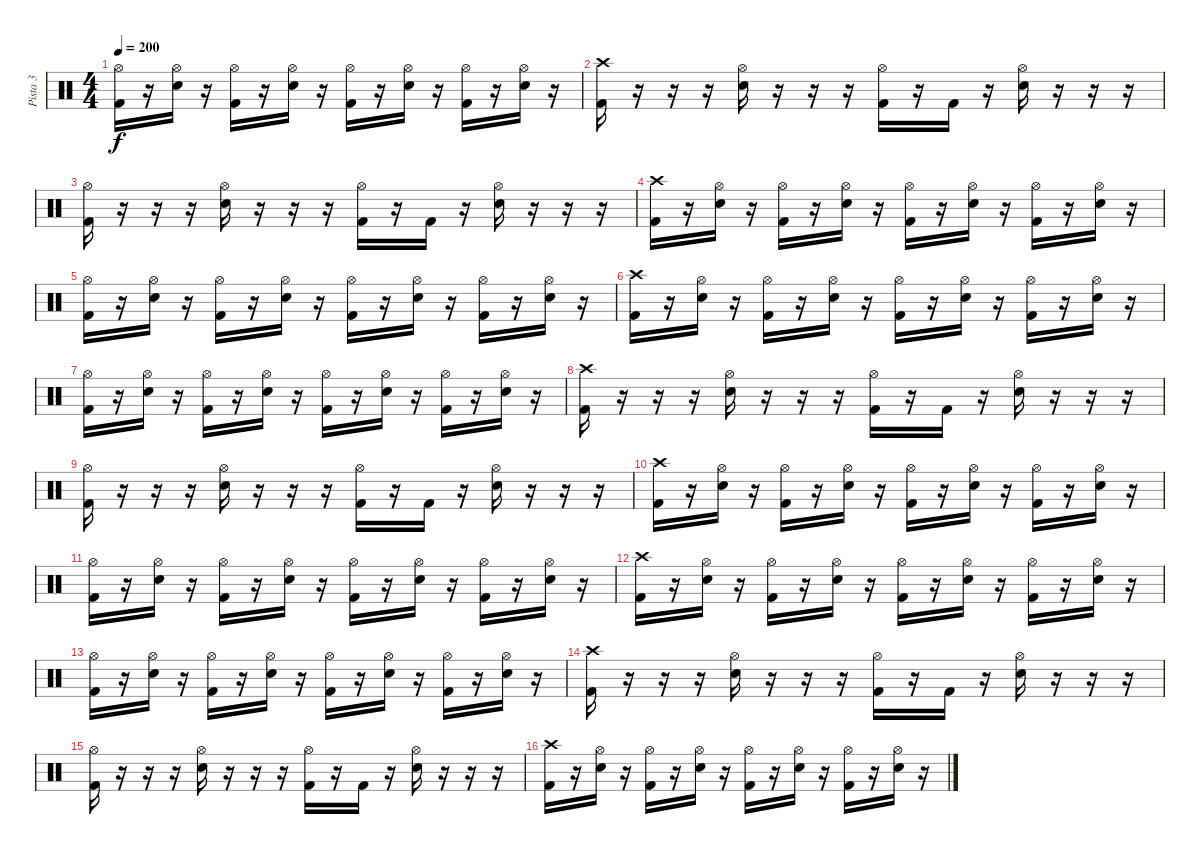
\track ("Pista 3" "Pista 3") {instrument percussion}
\staff {score}
\articulation defaults
\ts (4 4)
\tempo 200
\clef neutral
\ks c
("Hi-Hat (open)" "Kick (hit) 2").16{dy f} r.16 ("Hi-Hat (open)" "Electric Snare (hit)").16 r.16 ("Hi-Hat (open)" "Kick (hit) 2").16 r.16 ("Hi-Hat (open)" "Electric Snare (hit)").16 r.16 ("Hi-Hat (open)" "Kick (hit) 2").16 r.16 ("Hi-Hat (open)" "Electric Snare (hit)").16 r.16 ("Hi-Hat (open)" "Kick (hit) 2").16 r.16 ("Hi-Hat (open)" "Electric Snare (hit)").16 r.16 |
("Crash high (hit)" "Kick (hit) 2").16 r.16 r.16 r.16 ("Hi-Hat (open)" "Electric Snare (hit)").16 r.16 r.16 r.16 ("Hi-Hat (open)" "Kick (hit) 2").16 r.16 "Kick (hit) 2".16 r.16 ("Hi-Hat (open)" "Electric Snare (hit)").16 r.16 r.16 r.16 |
("Hi-Hat (open)" "Kick (hit) 2").16 r.16 r.16 r.16 ("Hi-Hat (open)" "Electric Snare (hit)").16 r.16 r.16 r.16 ("Hi-Hat (open)" "Kick (hit) 2").16 r.16 "Kick (hit) 2".16 r.16 ("Hi-Hat (open)" "Electric Snare (hit)").16 r.16 r.16 r.16 |
("Crash high (hit)" "Kick (hit) 2").16 r.16 ("Hi-Hat (open)" "Electric Snare (hit)").16 r.16 ("Hi-Hat (open)" "Kick (hit) 2").16 r.16 ("Hi-Hat (open)" "Electric Snare (hit)").16 r.16 ("Hi-Hat (open)" "Kick (hit) 2").16 r.16 ("Hi-Hat (open)" "Electric Snare (hit)").16 r.16 ("Hi-Hat (open)" "Kick (hit) 2").16 r.16 ("Hi-Hat (open)" "Electric Snare (hit)").16 r.16 |
("Hi-Hat (open)" "Kick (hit) 2").16 r.16 ("Hi-Hat (open)" "Electric Snare (hit)").16 r.16 ("Hi-Hat (open)" "Kick (hit) 2").16 r.16 ("Hi-Hat (open)" "Electric Snare (hit)").16 r.16 ("Hi-Hat (open)" "Kick (hit) 2").16 r.16 ("Hi-Hat (open)" "Electric Snare (hit)").16 r.16 ("Hi-Hat (open)" "Kick (hit) 2").16 r.16 ("Hi-Hat (open)" "Electric Snare (hit)").16 r.16 |
("Crash high (hit)" "Kick (hit) 2").16 r.16 ("Hi-Hat (open)" "Electric Snare (hit)").16 r.16 ("Hi-Hat (open)" "Kick (hit) 2").16 r.16 ("Hi-Hat (open)" "Electric Snare (hit)").16 r.16 ("Hi-Hat (open)" "Kick (hit) 2").16 r.16 ("Hi-Hat (open)" "Electric Snare (hit)").16 r.16 ("Hi-Hat (open)" "Kick (hit) 2").16 r.16 ("Hi-Hat (open)" "Electric Snare (hit)").16 r.16 |
("Hi-Hat (open)" "Kick (hit) 2").16 r.16 ("Hi-Hat (open)" "Electric Snare (hit)").16 r.16 ("Hi-Hat (open)" "Kick (hit) 2").16 r.16 ("Hi-Hat (open)" "Electric Snare (hit)").16 r.16 ("Hi-Hat (open)" "Kick (hit) 2").16 r.16 ("Hi-Hat (open)" "Electric Snare (hit)").16 r.16 ("Hi-Hat (open)" "Kick (hit) 2").16 r.16 ("Hi-Hat (open)" "Electric Snare (hit)").16 r.16 |
("Crash high (hit)" "Kick (hit) 2").16 r.16 r.16 r.16 ("Hi-Hat (open)" "Electric Snare (hit)").16 r.16 r.16 r.16 ("Hi-Hat (open)" "Kick (hit) 2").16 r.16 "Kick (hit) 2".16 r.16 ("Hi-Hat (open)" "Electric Snare (hit)").16 r.16 r.16 r.16 |
("Hi-Hat (open)" "Kick (hit) 2").16 r.16 r.16 r.16 ("Hi-Hat (open)" "Electric Snare (hit)").16 r.16 r.16 r.16 ("Hi-Hat (open)" "Kick (hit) 2").16 r.16 "Kick (hit) 2".16 r.16 ("Hi-Hat (open)" "Electric Snare (hit)").16 r.16 r.16 r.16 |
("Crash high (hit)" "Kick (hit) 2").16 r.16 ("Hi-Hat (open)" "Electric Snare (hit)").16 r.16 ("Hi-Hat (open)" "Kick (hit) 2").16 r.16 ("Hi-Hat (open)" "Electric Snare (hit)").16 r.16 ("Hi-Hat (open)" "Kick (hit) 2").16 r.16 ("Hi-Hat (open)" "Electric Snare (hit)").16 r.16 ("Hi-Hat (open)" "Kick (hit) 2").16 r.16 ("Hi-Hat (open)" "Electric Snare (hit)").16 r.16 |
("Hi-Hat (open)" "Kick (hit) 2").16 r.16 ("Hi-Hat (open)" "Electric Snare (hit)").16 r.16 ("Hi-Hat (open)" "Kick (hit) 2").16 r.16 ("Hi-Hat (open)" "Electric Snare (hit)").16 r.16 ("Hi-Hat (open)" "Kick (hit) 2").16 r.16 ("Hi-Hat (open)" "Electric Snare (hit)").16 r.16 ("Hi-Hat (open)" "Kick (hit) 2").16 r.16 ("Hi-Hat (open)" "Electric Snare (hit)").16 r.16 |
("Crash high (hit)" "Kick (hit) 2").16 r.16 ("Hi-Hat (open)" "Electric Snare (hit)").16 r.16 ("Hi-Hat (open)" "Kick (hit) 2").16 r.16 ("Hi-Hat (open)" "Electric Snare (hit)").16 r.16 ("Hi-Hat (open)" "Kick (hit) 2").16 r.16 ("Hi-Hat (open)" "Electric Snare (hit)").16 r.16 ("Hi-Hat (open)" "Kick (hit) 2").16 r.16 ("Hi-Hat (open)" "Electric Snare (hit)").16 r.16 |
("Hi-Hat (open)" "Kick (hit) 2").16 r.16 ("Hi-Hat (open)" "Electric Snare (hit)").16 r.16 ("Hi-Hat (open)" "Kick (hit) 2").16 r.16 ("Hi-Hat (open)" "Electric Snare (hit)").16 r.16 ("Hi-Hat (open)" "Kick (hit) 2").16 r.16 ("Hi-Hat (open)" "Electric Snare (hit)").16 r.16 ("Hi-Hat (open)" "Kick (hit) 2").16 r.16 ("Hi-Hat (open)" "Electric Snare (hit)").16 r.16 |
("Crash high (hit)" "Kick (hit) 2").16 r.16 r.16 r.16 ("Hi-Hat (open)" "Electric Snare (hit)").16 r.16 r.16 r.16 ("Hi-Hat (open)" "Kick (hit) 2").16 r.16 "Kick (hit) 2".16 r.16 ("Hi-Hat (open)" "Electric Snare (hit)").16 r.16 r.16 r.16 |
("Hi-Hat (open)" "Kick (hit) 2").16 r.16 r.16 r.16 ("Hi-Hat (open)" "Electric Snare (hit)").16 r.16 r.16 r.16 ("Hi-Hat (open)" "Kick (hit) 2").16 r.16 "Kick (hit) 2".16 r.16 ("Hi-Hat (open)" "Electric Snare (hit)").16 r.16 r.16 r.16 |
("Crash high (hit)" "Kick (hit) 2").16 r.16 ("Hi-Hat (open)" "Electric Snare (hit)").16 r.16 ("Hi-Hat (open)" "Kick (hit) 2").16 r.16 ("Hi-Hat (open)" "Electric Snare (hit)").16 r.16 ("Hi-Hat (open)" "Kick (hit) 2").16 r.16 ("Hi-Hat (open)" "Electric Snare (hit)").16 r.16 ("Hi-Hat (open)" "Kick (hit) 2").16 r.16 ("Hi-Hat (open)" "Electric Snare (hit)").16 r.16
